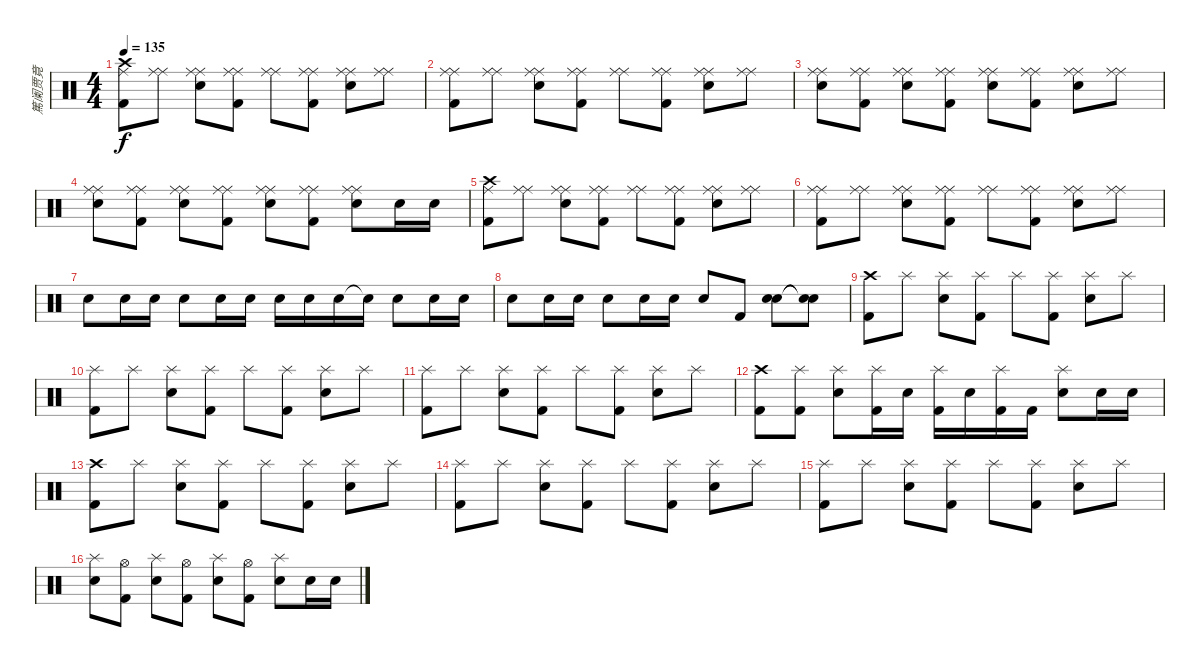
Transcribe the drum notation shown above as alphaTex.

\track ("篤阑贾竟" "篤阑贾竟") {instrument percussion}
\staff {score}
\articulation defaults
\ts (4 4)
\tempo 135
\clef neutral
\ks c
("Crash high (hit)" "Kick (hit) 2" "Ride (middle)").8{dy f} ("Ride (middle)" "Ride (middle)").8 ("Ride (middle)" "Electric Snare (hit)" "Ride (middle)").8 ("Ride (middle)" "Kick (hit) 2" "Ride (middle)").8 ("Ride (middle)" "Ride (middle)").8 ("Ride (middle)" "Kick (hit) 2" "Ride (middle)").8 ("Ride (middle)" "Electric Snare (hit)" "Ride (middle)").8 ("Ride (middle)" "Ride (middle)").8 |
("Ride (middle)" "Kick (hit) 2" "Ride (middle)").8 ("Ride (middle)" "Ride (middle)").8 ("Ride (middle)" "Electric Snare (hit)" "Ride (middle)").8 ("Ride (middle)" "Kick (hit) 2" "Ride (middle)").8 ("Ride (middle)" "Ride (middle)").8 ("Ride (middle)" "Kick (hit) 2" "Ride (middle)").8 ("Ride (middle)" "Electric Snare (hit)" "Ride (middle)").8 ("Ride (middle)" "Ride (middle)").8 |
("Ride (middle)" "Electric Snare (hit)" "Ride (middle)").8 ("Ride (middle)" "Kick (hit) 2" "Ride (middle)").8 ("Ride (middle)" "Electric Snare (hit)" "Ride (middle)").8 ("Ride (middle)" "Kick (hit) 2" "Ride (middle)").8 ("Ride (middle)" "Electric Snare (hit)" "Ride (middle)").8 ("Ride (middle)" "Kick (hit) 2" "Ride (middle)").8 ("Ride (middle)" "Electric Snare (hit)" "Ride (middle)").8 ("Ride (middle)" "Ride (middle)").8 |
("Ride (middle)" "Electric Snare (hit)" "Ride (middle)").8 ("Ride (middle)" "Kick (hit) 2" "Ride (middle)").8 ("Ride (middle)" "Electric Snare (hit)" "Ride (middle)").8 ("Ride (middle)" "Kick (hit) 2" "Ride (middle)").8 ("Ride (middle)" "Electric Snare (hit)" "Ride (middle)").8 ("Ride (middle)" "Kick (hit) 2" "Ride (middle)").8 ("Ride (middle)" "Electric Snare (hit)" "Ride (middle)").8 "Electric Snare (hit)".16 "Electric Snare (hit)".16 |
("Crash high (hit)" "Kick (hit) 2" "Ride (middle)").8 ("Ride (middle)" "Ride (middle)").8 ("Ride (middle)" "Electric Snare (hit)" "Ride (middle)").8 ("Ride (middle)" "Kick (hit) 2" "Ride (middle)").8 ("Ride (middle)" "Ride (middle)").8 ("Ride (middle)" "Kick (hit) 2" "Ride (middle)").8 ("Ride (middle)" "Electric Snare (hit)" "Ride (middle)").8 ("Ride (middle)" "Ride (middle)").8 |
("Ride (middle)" "Kick (hit) 2" "Ride (middle)").8 ("Ride (middle)" "Ride (middle)").8 ("Ride (middle)" "Electric Snare (hit)" "Ride (middle)").8 ("Ride (middle)" "Kick (hit) 2" "Ride (middle)").8 ("Ride (middle)" "Ride (middle)").8 ("Ride (middle)" "Kick (hit) 2" "Ride (middle)").8 ("Ride (middle)" "Electric Snare (hit)" "Ride (middle)").8 ("Ride (middle)" "Ride (middle)").8 |
"Electric Snare (hit)".8 "Electric Snare (hit)".16 "Electric Snare (hit)".16 "Electric Snare (hit)".8 "Electric Snare (hit)".16 "Electric Snare (hit)".16 "Electric Snare (hit)".16 "Electric Snare (hit)".16 "Electric Snare (hit)".16 "Snare (hit)"{t}.16 "Electric Snare (hit)".8 "Electric Snare (hit)".16 "Electric Snare (hit)".16 |
"Electric Snare (hit)".8 "Electric Snare (hit)".16 "Electric Snare (hit)".16 "Electric Snare (hit)".8 "Electric Snare (hit)".16 "Electric Snare (hit)".16 "Electric Snare (hit)".8 "Kick (hit) 2".8 ("Electric Snare (hit)" "Electric Snare (hit)").8 ("Snare (hit)"{t} "Snare (hit)"{t}).8 |
("Crash high (hit)" "Kick (hit) 2").8 "Splash (hit)".8 ("Splash (hit)" "Electric Snare (hit)").8 ("Splash (hit)" "Kick (hit) 2").8 "Splash (hit)".8 ("Splash (hit)" "Kick (hit) 2").8 ("Splash (hit)" "Electric Snare (hit)").8 "Splash (hit)".8 |
("Splash (hit)" "Kick (hit) 2").8 "Splash (hit)".8 ("Splash (hit)" "Electric Snare (hit)").8 ("Splash (hit)" "Kick (hit) 2").8 "Splash (hit)".8 ("Splash (hit)" "Kick (hit) 2").8 ("Splash (hit)" "Electric Snare (hit)").8 "Splash (hit)".8 |
("Splash (hit)" "Kick (hit) 2").8 "Splash (hit)".8 ("Splash (hit)" "Electric Snare (hit)").8 ("Splash (hit)" "Kick (hit) 2").8 "Splash (hit)".8 ("Splash (hit)" "Kick (hit) 2").8 ("Splash (hit)" "Electric Snare (hit)").8 "Splash (hit)".8 |
("Crash high (hit)" "Kick (hit) 2").8 ("Splash (hit)" "Kick (hit) 2").8 ("Splash (hit)" "Electric Snare (hit)").8 ("Splash (hit)" "Kick (hit) 2").16 "Electric Snare (hit)".16 ("Splash (hit)" "Kick (hit) 2").16 "Electric Snare (hit)".16 ("Splash (hit)" "Kick (hit) 2").16 "Kick (hit) 2".16 ("Splash (hit)" "Electric Snare (hit)").8 "Electric Snare (hit)".16 "Electric Snare (hit)".16 |
("Crash high (hit)" "Kick (hit) 2").8 "Splash (hit)".8 ("Splash (hit)" "Electric Snare (hit)").8 ("Splash (hit)" "Kick (hit) 2").8 "Splash (hit)".8 ("Splash (hit)" "Kick (hit) 2").8 ("Splash (hit)" "Electric Snare (hit)").8 "Splash (hit)".8 |
("Splash (hit)" "Kick (hit) 2").8 "Splash (hit)".8 ("Splash (hit)" "Electric Snare (hit)").8 ("Splash (hit)" "Kick (hit) 2").8 "Splash (hit)".8 ("Splash (hit)" "Kick (hit) 2").8 ("Splash (hit)" "Electric Snare (hit)").8 "Splash (hit)".8 |
("Splash (hit)" "Kick (hit) 2").8 "Splash (hit)".8 ("Splash (hit)" "Electric Snare (hit)").8 ("Splash (hit)" "Kick (hit) 2").8 "Splash (hit)".8 ("Splash (hit)" "Kick (hit) 2").8 ("Splash (hit)" "Electric Snare (hit)").8 "Splash (hit)".8 |
("Splash (hit)" "Electric Snare (hit)").8 ("Hi-Hat (open)" "Kick (hit) 2").8 ("Splash (hit)" "Electric Snare (hit)").8 ("Hi-Hat (open)" "Kick (hit) 2").8 ("Splash (hit)" "Electric Snare (hit)").8 ("Hi-Hat (open)" "Kick (hit) 2").8 ("Splash (hit)" "Electric Snare (hit)").8 "Electric Snare (hit)".16 "Electric Snare (hit)".16
